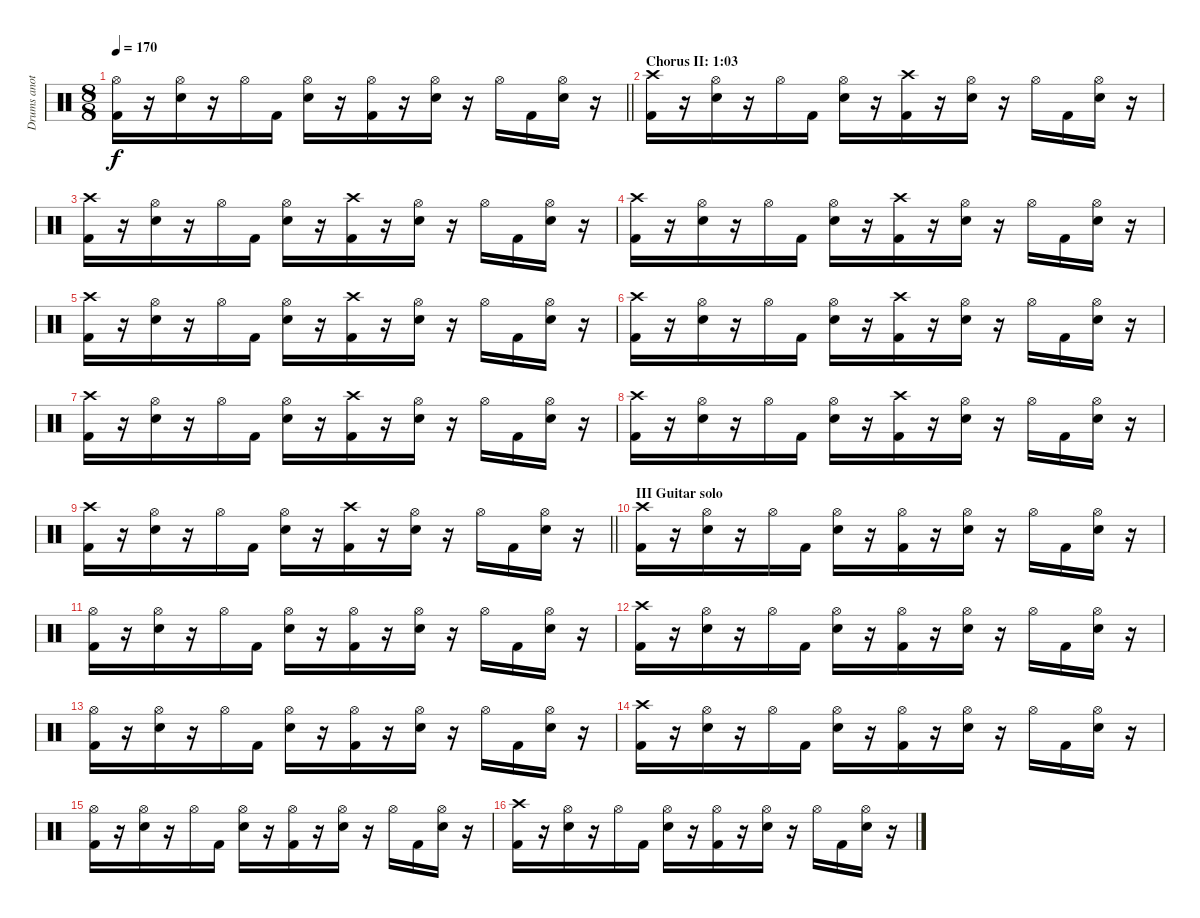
\track ("Drums another version" "Drums anot") {mute instrument percussion}
\staff {score}
\articulation defaults
\ts (8 8)
\tempo 170
\clef neutral
\barLineRight lightlight
\ks c
("Hi-Hat (open)" "Kick (hit) 2").16{dy f} r.16 ("Hi-Hat (open)" "Snare (hit) 2").16 r.16 "Hi-Hat (open)".16 "Kick (hit) 2".16 ("Hi-Hat (open)" "Snare (hit) 2").16 r.16 ("Hi-Hat (open)" "Kick (hit) 2").16 r.16 ("Hi-Hat (open)" "Snare (hit) 2").16 r.16 "Hi-Hat (open)".16 "Kick (hit) 2".16 ("Hi-Hat (open)" "Snare (hit) 2").16 r.16 |
\section ("" "Chorus II: 1:03")
("Crash high (hit)" "Kick (hit) 2").16 r.16 ("Hi-Hat (open)" "Snare (hit) 2").16 r.16 "Hi-Hat (open)".16 "Kick (hit) 2".16 ("Hi-Hat (open)" "Snare (hit) 2").16 r.16 ("Crash high (hit)" "Kick (hit) 2").16 r.16 ("Hi-Hat (open)" "Snare (hit) 2").16 r.16 "Hi-Hat (open)".16 "Kick (hit) 2".16 ("Hi-Hat (open)" "Snare (hit) 2").16 r.16 |
("Crash high (hit)" "Kick (hit) 2").16 r.16 ("Hi-Hat (open)" "Snare (hit) 2").16 r.16 "Hi-Hat (open)".16 "Kick (hit) 2".16 ("Hi-Hat (open)" "Snare (hit) 2").16 r.16 ("Crash high (hit)" "Kick (hit) 2").16 r.16 ("Hi-Hat (open)" "Snare (hit) 2").16 r.16 "Hi-Hat (open)".16 "Kick (hit) 2".16 ("Hi-Hat (open)" "Snare (hit) 2").16 r.16 |
("Crash high (hit)" "Kick (hit) 2").16 r.16 ("Hi-Hat (open)" "Snare (hit) 2").16 r.16 "Hi-Hat (open)".16 "Kick (hit) 2".16 ("Hi-Hat (open)" "Snare (hit) 2").16 r.16 ("Crash high (hit)" "Kick (hit) 2").16 r.16 ("Hi-Hat (open)" "Snare (hit) 2").16 r.16 "Hi-Hat (open)".16 "Kick (hit) 2".16 ("Hi-Hat (open)" "Snare (hit) 2").16 r.16 |
("Crash high (hit)" "Kick (hit) 2").16 r.16 ("Hi-Hat (open)" "Snare (hit) 2").16 r.16 "Hi-Hat (open)".16 "Kick (hit) 2".16 ("Hi-Hat (open)" "Snare (hit) 2").16 r.16 ("Crash high (hit)" "Kick (hit) 2").16 r.16 ("Hi-Hat (open)" "Snare (hit) 2").16 r.16 "Hi-Hat (open)".16 "Kick (hit) 2".16 ("Hi-Hat (open)" "Snare (hit) 2").16 r.16 |
("Crash high (hit)" "Kick (hit) 2").16 r.16 ("Hi-Hat (open)" "Snare (hit) 2").16 r.16 "Hi-Hat (open)".16 "Kick (hit) 2".16 ("Hi-Hat (open)" "Snare (hit) 2").16 r.16 ("Crash high (hit)" "Kick (hit) 2").16 r.16 ("Hi-Hat (open)" "Snare (hit) 2").16 r.16 "Hi-Hat (open)".16 "Kick (hit) 2".16 ("Hi-Hat (open)" "Snare (hit) 2").16 r.16 |
("Crash high (hit)" "Kick (hit) 2").16 r.16 ("Hi-Hat (open)" "Snare (hit) 2").16 r.16 "Hi-Hat (open)".16 "Kick (hit) 2".16 ("Hi-Hat (open)" "Snare (hit) 2").16 r.16 ("Crash high (hit)" "Kick (hit) 2").16 r.16 ("Hi-Hat (open)" "Snare (hit) 2").16 r.16 "Hi-Hat (open)".16 "Kick (hit) 2".16 ("Hi-Hat (open)" "Snare (hit) 2").16 r.16 |
("Crash high (hit)" "Kick (hit) 2").16 r.16 ("Hi-Hat (open)" "Snare (hit) 2").16 r.16 "Hi-Hat (open)".16 "Kick (hit) 2".16 ("Hi-Hat (open)" "Snare (hit) 2").16 r.16 ("Crash high (hit)" "Kick (hit) 2").16 r.16 ("Hi-Hat (open)" "Snare (hit) 2").16 r.16 "Hi-Hat (open)".16 "Kick (hit) 2".16 ("Hi-Hat (open)" "Snare (hit) 2").16 r.16 |
\barLineRight lightlight
("Crash high (hit)" "Kick (hit) 2").16 r.16 ("Hi-Hat (open)" "Snare (hit) 2").16 r.16 "Hi-Hat (open)".16 "Kick (hit) 2".16 ("Hi-Hat (open)" "Snare (hit) 2").16 r.16 ("Crash high (hit)" "Kick (hit) 2").16 r.16 ("Hi-Hat (open)" "Snare (hit) 2").16 r.16 "Hi-Hat (open)".16 "Kick (hit) 2".16 ("Hi-Hat (open)" "Snare (hit) 2").16 r.16 |
\section ("" "III Guitar solo")
("Crash high (hit)" "Kick (hit) 2").16 r.16 ("Hi-Hat (open)" "Snare (hit) 2").16 r.16 "Hi-Hat (open)".16 "Kick (hit) 2".16 ("Hi-Hat (open)" "Snare (hit) 2").16 r.16 ("Hi-Hat (open)" "Kick (hit) 2").16 r.16 ("Hi-Hat (open)" "Snare (hit) 2").16 r.16 "Hi-Hat (open)".16 "Kick (hit) 2".16 ("Hi-Hat (open)" "Snare (hit) 2").16 r.16 |
("Hi-Hat (open)" "Kick (hit) 2").16 r.16 ("Hi-Hat (open)" "Snare (hit) 2").16 r.16 "Hi-Hat (open)".16 "Kick (hit) 2".16 ("Hi-Hat (open)" "Snare (hit) 2").16 r.16 ("Hi-Hat (open)" "Kick (hit) 2").16 r.16 ("Hi-Hat (open)" "Snare (hit) 2").16 r.16 "Hi-Hat (open)".16 "Kick (hit) 2".16 ("Hi-Hat (open)" "Snare (hit) 2").16 r.16 |
("Crash high (hit)" "Kick (hit) 2").16 r.16 ("Hi-Hat (open)" "Snare (hit) 2").16 r.16 "Hi-Hat (open)".16 "Kick (hit) 2".16 ("Hi-Hat (open)" "Snare (hit) 2").16 r.16 ("Hi-Hat (open)" "Kick (hit) 2").16 r.16 ("Hi-Hat (open)" "Snare (hit) 2").16 r.16 "Hi-Hat (open)".16 "Kick (hit) 2".16 ("Hi-Hat (open)" "Snare (hit) 2").16 r.16 |
("Hi-Hat (open)" "Kick (hit) 2").16 r.16 ("Hi-Hat (open)" "Snare (hit) 2").16 r.16 "Hi-Hat (open)".16 "Kick (hit) 2".16 ("Hi-Hat (open)" "Snare (hit) 2").16 r.16 ("Hi-Hat (open)" "Kick (hit) 2").16 r.16 ("Hi-Hat (open)" "Snare (hit) 2").16 r.16 "Hi-Hat (open)".16 "Kick (hit) 2".16 ("Hi-Hat (open)" "Snare (hit) 2").16 r.16 |
("Crash high (hit)" "Kick (hit) 2").16 r.16 ("Hi-Hat (open)" "Snare (hit) 2").16 r.16 "Hi-Hat (open)".16 "Kick (hit) 2".16 ("Hi-Hat (open)" "Snare (hit) 2").16 r.16 ("Hi-Hat (open)" "Kick (hit) 2").16 r.16 ("Hi-Hat (open)" "Snare (hit) 2").16 r.16 "Hi-Hat (open)".16 "Kick (hit) 2".16 ("Hi-Hat (open)" "Snare (hit) 2").16 r.16 |
("Hi-Hat (open)" "Kick (hit) 2").16 r.16 ("Hi-Hat (open)" "Snare (hit) 2").16 r.16 "Hi-Hat (open)".16 "Kick (hit) 2".16 ("Hi-Hat (open)" "Snare (hit) 2").16 r.16 ("Hi-Hat (open)" "Kick (hit) 2").16 r.16 ("Hi-Hat (open)" "Snare (hit) 2").16 r.16 "Hi-Hat (open)".16 "Kick (hit) 2".16 ("Hi-Hat (open)" "Snare (hit) 2").16 r.16 |
("Crash high (hit)" "Kick (hit) 2").16 r.16 ("Hi-Hat (open)" "Snare (hit) 2").16 r.16 "Hi-Hat (open)".16 "Kick (hit) 2".16 ("Hi-Hat (open)" "Snare (hit) 2").16 r.16 ("Hi-Hat (open)" "Kick (hit) 2").16 r.16 ("Hi-Hat (open)" "Snare (hit) 2").16 r.16 "Hi-Hat (open)".16 "Kick (hit) 2".16 ("Hi-Hat (open)" "Snare (hit) 2").16 r.16
